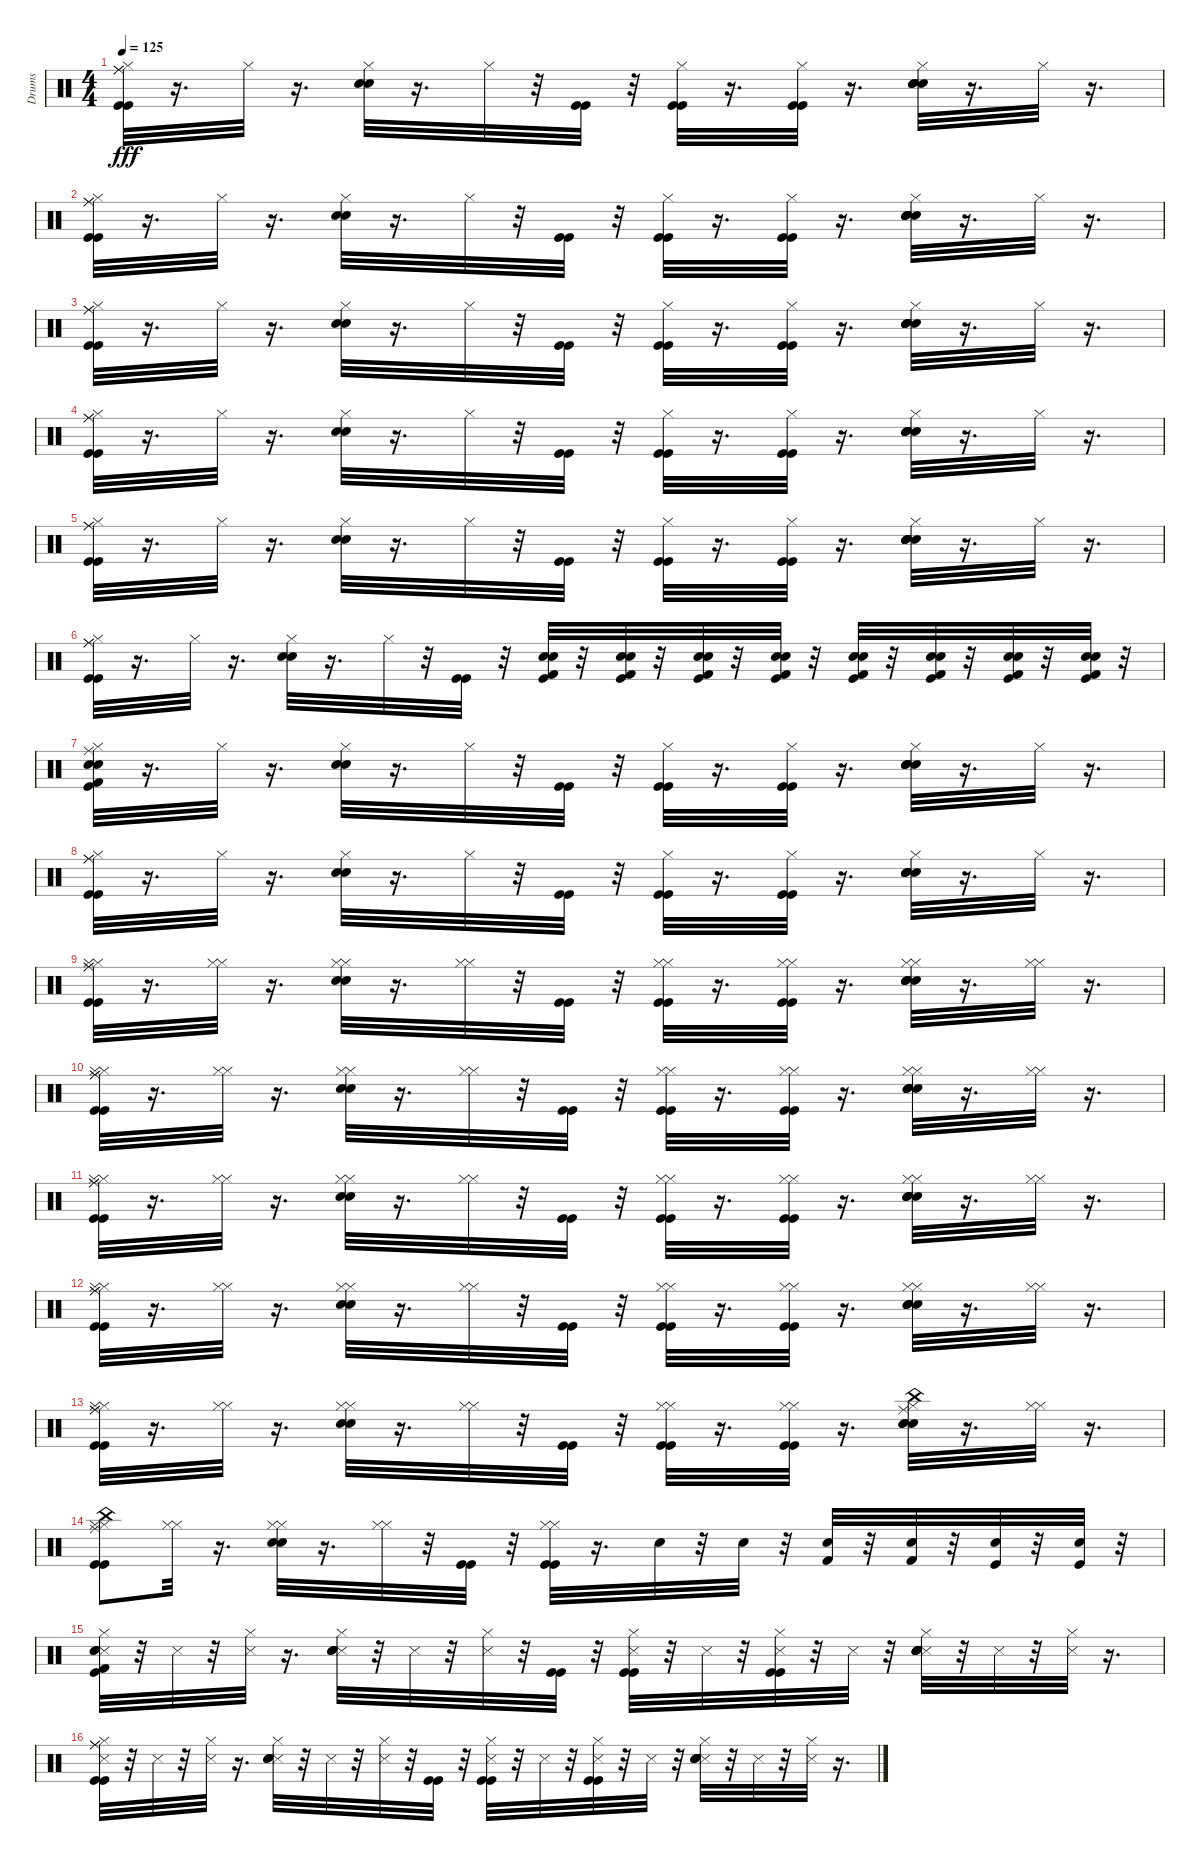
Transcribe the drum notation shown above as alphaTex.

\track ("Drums" "Drums") {instrument percussion}
\staff {score}
\articulation defaults
\ts (4 4)
\tempo 125
\clef neutral
\ks c
("Hi-Hat (closed)" "Kick (hit)" "Ride (middle)" "Kick (hit)" "Ride (middle)").32{dy fff} r.16{d} "Hi-Hat (closed)".32 r.16{d} ("Snare (hit) 2" "Electric Snare (hit)" "Hi-Hat (closed)").32 r.16{d} "Hi-Hat (closed)".32 r.32 ("Kick (hit)" "Kick (hit)").32 r.32 ("Hi-Hat (closed)" "Kick (hit)" "Kick (hit)").32 r.16{d} ("Hi-Hat (closed)" "Kick (hit)" "Kick (hit)").32 r.16{d} ("Hi-Hat (closed)" "Snare (hit) 2" "Electric Snare (hit)" "Snare (hit) 2" "Electric Snare (hit)").32 r.16{d} "Hi-Hat (closed)".32 r.16{d} |
("Hi-Hat (closed)" "Kick (hit)" "Ride (middle)" "Kick (hit)" "Ride (middle)").32 r.16{d} "Hi-Hat (closed)".32 r.16{d} ("Snare (hit) 2" "Electric Snare (hit)" "Hi-Hat (closed)").32 r.16{d} "Hi-Hat (closed)".32 r.32 ("Kick (hit)" "Kick (hit)").32 r.32 ("Hi-Hat (closed)" "Kick (hit)" "Kick (hit)").32 r.16{d} ("Hi-Hat (closed)" "Kick (hit)" "Kick (hit)").32 r.16{d} ("Hi-Hat (closed)" "Snare (hit) 2" "Electric Snare (hit)" "Snare (hit) 2" "Electric Snare (hit)").32 r.16{d} "Hi-Hat (closed)".32 r.16{d} |
("Hi-Hat (closed)" "Kick (hit)" "Ride (middle)" "Kick (hit)" "Ride (middle)").32 r.16{d} "Hi-Hat (closed)".32 r.16{d} ("Snare (hit) 2" "Electric Snare (hit)" "Hi-Hat (closed)").32 r.16{d} "Hi-Hat (closed)".32 r.32 ("Kick (hit)" "Kick (hit)").32 r.32 ("Hi-Hat (closed)" "Kick (hit)" "Kick (hit)").32 r.16{d} ("Hi-Hat (closed)" "Kick (hit)" "Kick (hit)").32 r.16{d} ("Hi-Hat (closed)" "Snare (hit) 2" "Electric Snare (hit)" "Snare (hit) 2" "Electric Snare (hit)").32 r.16{d} "Hi-Hat (closed)".32 r.16{d} |
("Hi-Hat (closed)" "Kick (hit)" "Ride (middle)" "Kick (hit)" "Ride (middle)").32 r.16{d} "Hi-Hat (closed)".32 r.16{d} ("Snare (hit) 2" "Electric Snare (hit)" "Hi-Hat (closed)").32 r.16{d} "Hi-Hat (closed)".32 r.32 ("Kick (hit)" "Kick (hit)").32 r.32 ("Hi-Hat (closed)" "Kick (hit)" "Kick (hit)").32 r.16{d} ("Hi-Hat (closed)" "Kick (hit)" "Kick (hit)").32 r.16{d} ("Hi-Hat (closed)" "Snare (hit) 2" "Electric Snare (hit)" "Snare (hit) 2" "Electric Snare (hit)").32 r.16{d} "Hi-Hat (closed)".32 r.16{d} |
("Hi-Hat (closed)" "Kick (hit)" "Ride (middle)" "Kick (hit)" "Ride (middle)").32 r.16{d} "Hi-Hat (closed)".32 r.16{d} ("Snare (hit) 2" "Electric Snare (hit)" "Hi-Hat (closed)").32 r.16{d} "Hi-Hat (closed)".32 r.32 ("Kick (hit)" "Kick (hit)").32 r.32 ("Hi-Hat (closed)" "Kick (hit)" "Kick (hit)").32 r.16{d} ("Hi-Hat (closed)" "Kick (hit)" "Kick (hit)").32 r.16{d} ("Hi-Hat (closed)" "Snare (hit) 2" "Electric Snare (hit)" "Snare (hit) 2" "Electric Snare (hit)").32 r.16{d} "Hi-Hat (closed)".32 r.16{d} |
("Hi-Hat (closed)" "Kick (hit)" "Ride (middle)" "Kick (hit)" "Ride (middle)").32 r.16{d} "Hi-Hat (closed)".32 r.16{d} ("Snare (hit) 2" "Electric Snare (hit)" "Hi-Hat (closed)").32 r.16{d} "Hi-Hat (closed)".32 r.32 ("Kick (hit)" "Kick (hit)").32 r.32 ("Kick (hit)" "Kick (hit) 2" "Snare (hit) 2" "Electric Snare (hit)").32 r.32 ("Kick (hit)" "Kick (hit) 2" "Snare (hit) 2" "Electric Snare (hit)").32 r.32 ("Kick (hit)" "Kick (hit) 2" "Snare (hit) 2" "Electric Snare (hit)").32 r.32 ("Kick (hit)" "Kick (hit) 2" "Snare (hit) 2" "Electric Snare (hit)").32 r.32 ("Kick (hit)" "Snare (hit) 2" "Kick (hit) 2" "Electric Snare (hit)").32 r.32 ("Kick (hit)" "Snare (hit) 2" "Kick (hit) 2" "Electric Snare (hit)").32 r.32 ("Kick (hit) 2" "Electric Snare (hit)" "Snare (hit) 2" "Kick (hit)").32 r.32 ("Kick (hit) 2" "Electric Snare (hit)" "Snare (hit) 2" "Kick (hit)").32 r.32 |
("Kick (hit) 2" "Snare (hit) 2" "Electric Snare (hit)" "Hi-Hat (closed)" "Kick (hit)" "Ride (middle)").32 r.16{d} "Hi-Hat (closed)".32 r.16{d} ("Snare (hit) 2" "Electric Snare (hit)" "Hi-Hat (closed)").32 r.16{d} "Hi-Hat (closed)".32 r.32 ("Kick (hit)" "Kick (hit)").32 r.32 ("Hi-Hat (closed)" "Kick (hit)" "Kick (hit)").32 r.16{d} ("Hi-Hat (closed)" "Kick (hit)" "Kick (hit)").32 r.16{d} ("Hi-Hat (closed)" "Snare (hit) 2" "Electric Snare (hit)" "Snare (hit) 2" "Electric Snare (hit)").32 r.16{d} "Hi-Hat (closed)".32 r.16{d} |
("Hi-Hat (closed)" "Kick (hit)" "Ride (middle)" "Kick (hit)" "Ride (middle)").32 r.16{d} "Hi-Hat (closed)".32 r.16{d} ("Snare (hit) 2" "Electric Snare (hit)" "Hi-Hat (closed)").32 r.16{d} "Hi-Hat (closed)".32 r.32 ("Kick (hit)" "Kick (hit)").32 r.32 ("Hi-Hat (closed)" "Kick (hit)" "Kick (hit)").32 r.16{d} ("Hi-Hat (closed)" "Kick (hit)" "Kick (hit)").32 r.16{d} ("Hi-Hat (closed)" "Snare (hit) 2" "Electric Snare (hit)" "Snare (hit) 2" "Electric Snare (hit)").32 r.16{d} "Hi-Hat (closed)".32 r.16{d} |
("Kick (hit)" "Hi-Hat (closed)" "Ride (middle)" "Kick (hit)" "Hi-Hat (closed)" "Ride (middle)").32 r.16{d} ("Hi-Hat (closed)" "Hi-Hat (closed)").32 r.16{d} ("Snare (hit) 2" "Electric Snare (hit)" "Hi-Hat (closed)" "Hi-Hat (closed)").32 r.16{d} ("Hi-Hat (closed)" "Hi-Hat (closed)").32 r.32 ("Kick (hit)" "Kick (hit)").32 r.32 ("Kick (hit)" "Hi-Hat (closed)" "Kick (hit)" "Hi-Hat (closed)").32 r.16{d} ("Kick (hit)" "Hi-Hat (closed)" "Kick (hit)" "Hi-Hat (closed)").32 r.16{d} ("Snare (hit) 2" "Electric Snare (hit)" "Hi-Hat (closed)" "Snare (hit) 2" "Electric Snare (hit)" "Hi-Hat (closed)").32 r.16{d} ("Hi-Hat (closed)" "Hi-Hat (closed)").32 r.16{d} |
("Kick (hit)" "Hi-Hat (closed)" "Ride (middle)" "Kick (hit)" "Hi-Hat (closed)" "Ride (middle)").32 r.16{d} ("Hi-Hat (closed)" "Hi-Hat (closed)").32 r.16{d} ("Snare (hit) 2" "Electric Snare (hit)" "Hi-Hat (closed)" "Hi-Hat (closed)").32 r.16{d} ("Hi-Hat (closed)" "Hi-Hat (closed)").32 r.32 ("Kick (hit)" "Kick (hit)").32 r.32 ("Kick (hit)" "Hi-Hat (closed)" "Kick (hit)" "Hi-Hat (closed)").32 r.16{d} ("Kick (hit)" "Hi-Hat (closed)" "Kick (hit)" "Hi-Hat (closed)").32 r.16{d} ("Snare (hit) 2" "Electric Snare (hit)" "Hi-Hat (closed)" "Snare (hit) 2" "Electric Snare (hit)" "Hi-Hat (closed)").32 r.16{d} ("Hi-Hat (closed)" "Hi-Hat (closed)").32 r.16{d} |
("Kick (hit)" "Hi-Hat (closed)" "Ride (middle)" "Kick (hit)" "Hi-Hat (closed)" "Ride (middle)").32 r.16{d} ("Hi-Hat (closed)" "Hi-Hat (closed)").32 r.16{d} ("Snare (hit) 2" "Electric Snare (hit)" "Hi-Hat (closed)" "Hi-Hat (closed)").32 r.16{d} ("Hi-Hat (closed)" "Hi-Hat (closed)").32 r.32 ("Kick (hit)" "Kick (hit)").32 r.32 ("Kick (hit)" "Hi-Hat (closed)" "Kick (hit)" "Hi-Hat (closed)").32 r.16{d} ("Kick (hit)" "Hi-Hat (closed)" "Kick (hit)" "Hi-Hat (closed)").32 r.16{d} ("Snare (hit) 2" "Electric Snare (hit)" "Hi-Hat (closed)" "Snare (hit) 2" "Electric Snare (hit)" "Hi-Hat (closed)").32 r.16{d} ("Hi-Hat (closed)" "Hi-Hat (closed)").32 r.16{d} |
("Kick (hit)" "Hi-Hat (closed)" "Ride (middle)" "Kick (hit)" "Hi-Hat (closed)" "Ride (middle)").32 r.16{d} ("Hi-Hat (closed)" "Hi-Hat (closed)").32 r.16{d} ("Snare (hit) 2" "Electric Snare (hit)" "Hi-Hat (closed)" "Hi-Hat (closed)").32 r.16{d} ("Hi-Hat (closed)" "Hi-Hat (closed)").32 r.32 ("Kick (hit)" "Kick (hit)").32 r.32 ("Kick (hit)" "Hi-Hat (closed)" "Kick (hit)" "Hi-Hat (closed)").32 r.16{d} ("Kick (hit)" "Hi-Hat (closed)" "Kick (hit)" "Hi-Hat (closed)").32 r.16{d} ("Snare (hit) 2" "Electric Snare (hit)" "Hi-Hat (closed)" "Snare (hit) 2" "Electric Snare (hit)" "Hi-Hat (closed)").32 r.16{d} ("Hi-Hat (closed)" "Hi-Hat (closed)").32 r.16{d} |
("Kick (hit)" "Hi-Hat (closed)" "Ride (middle)" "Kick (hit)" "Hi-Hat (closed)" "Ride (middle)").32 r.16{d} ("Hi-Hat (closed)" "Hi-Hat (closed)").32 r.16{d} ("Electric Snare (hit)" "Snare (hit) 2" "Hi-Hat (closed)" "Hi-Hat (closed)").32 r.16{d} ("Hi-Hat (closed)" "Hi-Hat (closed)").32 r.32 ("Kick (hit)" "Kick (hit)").32 r.32 ("Kick (hit)" "Hi-Hat (closed)" "Kick (hit)" "Hi-Hat (closed)").32 r.16{d} ("Kick (hit)" "Hi-Hat (closed)" "Kick (hit)" "Hi-Hat (closed)").32 r.16{d} ("Ride (middle)" "China (hit)" "Snare (hit) 2" "Electric Snare (hit)" "Hi-Hat (closed)" "Snare (hit) 2").32 r.16{d} ("Hi-Hat (closed)" "Hi-Hat (closed)").32 r.16{d} |
("China (hit)" "Kick (hit)" "Hi-Hat (closed)" "Ride (middle)" "Kick (hit)" "Hi-Hat (closed)").8 ("Hi-Hat (closed)" "Hi-Hat (closed)").32 r.16{d} ("Snare (hit) 2" "Electric Snare (hit)" "Hi-Hat (closed)" "Hi-Hat (closed)").32 r.16{d} ("Hi-Hat (closed)" "Hi-Hat (closed)").32 r.32 ("Kick (hit)" "Kick (hit)").32 r.32 ("Kick (hit)" "Hi-Hat (closed)" "Kick (hit)" "Hi-Hat (closed)").32 r.16{d} "Electric Snare (hit)".32 r.32 "Electric Snare (hit)".32 r.32 ("Kick (hit) 2" "Electric Snare (hit)").32 r.32 ("Kick (hit) 2" "Electric Snare (hit)").32 r.32 ("Snare (hit) 2" "Kick (hit)").32 r.32 ("Snare (hit) 2" "Kick (hit)").32 r.32 |
("Snare (side stick) 3" "Kick (hit) 2" "Snare (hit) 2" "Electric Snare (hit)" "Hi-Hat (closed)" "Kick (hit)").32 r.32 "Snare (side stick) 3".32 r.32 ("Snare (side stick) 3" "Hi-Hat (closed)").32 r.16{d} ("Snare (side stick) 3" "Snare (hit) 2" "Electric Snare (hit)" "Hi-Hat (closed)").32 r.32 "Snare (side stick) 3".32 r.32 ("Snare (side stick) 3" "Hi-Hat (closed)").32 r.32 ("Kick (hit)" "Kick (hit)").32 r.32 ("Snare (side stick) 3" "Hi-Hat (closed)" "Kick (hit)" "Kick (hit)").32 r.32 "Snare (side stick) 3".32 r.32 ("Snare (side stick) 3" "Hi-Hat (closed)" "Kick (hit)" "Kick (hit)").32 r.32 "Snare (side stick) 3".32 r.32 ("Snare (side stick) 3" "Hi-Hat (closed)" "Snare (hit) 2" "Electric Snare (hit)" "Snare (hit) 2" "Electric Snare (hit)").32 r.32 "Snare (side stick) 3".32 r.32 ("Snare (side stick) 3" "Hi-Hat (closed)").32 r.16{d} |
("Snare (side stick) 3" "Hi-Hat (closed)" "Kick (hit)" "Ride (middle)" "Kick (hit)" "Ride (middle)").32 r.32 "Snare (side stick) 3".32 r.32 ("Snare (side stick) 3" "Hi-Hat (closed)").32 r.16{d} ("Snare (side stick) 3" "Snare (hit) 2" "Electric Snare (hit)" "Hi-Hat (closed)").32 r.32 "Snare (side stick) 3".32 r.32 ("Snare (side stick) 3" "Hi-Hat (closed)").32 r.32 ("Kick (hit)" "Kick (hit)").32 r.32 ("Snare (side stick) 3" "Hi-Hat (closed)" "Kick (hit)" "Kick (hit)").32 r.32 "Snare (side stick) 3".32 r.32 ("Snare (side stick) 3" "Hi-Hat (closed)" "Kick (hit)" "Kick (hit)").32 r.32 "Snare (side stick) 3".32 r.32 ("Snare (side stick) 3" "Hi-Hat (closed)" "Snare (hit) 2" "Electric Snare (hit)" "Snare (hit) 2" "Electric Snare (hit)").32 r.32 "Snare (side stick) 3".32 r.32 ("Snare (side stick) 3" "Hi-Hat (closed)").32 r.16{d}
